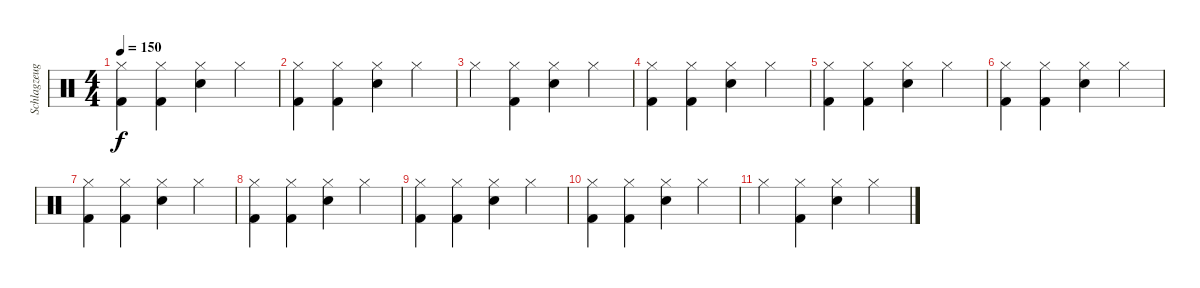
\track ("Schlagzeug" "Schlagzeug") {instrument percussion}
\staff {score}
\articulation defaults
\ts (4 4)
\tempo 150
\clef neutral
\ks c
("Hi-Hat (closed)" "Kick (hit) 2").4{dy f} ("Hi-Hat (closed)" "Kick (hit) 2").4 ("Hi-Hat (closed)" "Snare (hit) 2").4 "Hi-Hat (closed)".4 |
("Hi-Hat (closed)" "Kick (hit) 2").4 ("Hi-Hat (closed)" "Kick (hit) 2").4 ("Hi-Hat (closed)" "Snare (hit) 2").4 "Hi-Hat (closed)".4 |
"Hi-Hat (closed)".4 ("Hi-Hat (closed)" "Kick (hit) 2").4 ("Hi-Hat (closed)" "Snare (hit) 2").4 "Hi-Hat (closed)".4 |
("Hi-Hat (closed)" "Kick (hit) 2").4 ("Hi-Hat (closed)" "Kick (hit) 2").4 ("Hi-Hat (closed)" "Snare (hit) 2").4 "Hi-Hat (closed)".4 |
("Hi-Hat (closed)" "Kick (hit) 2").4 ("Hi-Hat (closed)" "Kick (hit) 2").4 ("Hi-Hat (closed)" "Snare (hit) 2").4 "Hi-Hat (closed)".4 |
("Hi-Hat (closed)" "Kick (hit) 2").4 ("Hi-Hat (closed)" "Kick (hit) 2").4 ("Hi-Hat (closed)" "Snare (hit) 2").4 "Hi-Hat (closed)".4 |
("Hi-Hat (closed)" "Kick (hit) 2").4 ("Hi-Hat (closed)" "Kick (hit) 2").4 ("Hi-Hat (closed)" "Snare (hit) 2").4 "Hi-Hat (closed)".4 |
("Hi-Hat (closed)" "Kick (hit) 2").4 ("Hi-Hat (closed)" "Kick (hit) 2").4 ("Hi-Hat (closed)" "Snare (hit) 2").4 "Hi-Hat (closed)".4 |
("Hi-Hat (closed)" "Kick (hit) 2").4 ("Hi-Hat (closed)" "Kick (hit) 2").4 ("Hi-Hat (closed)" "Snare (hit) 2").4 "Hi-Hat (closed)".4 |
("Hi-Hat (closed)" "Kick (hit) 2").4 ("Hi-Hat (closed)" "Kick (hit) 2").4 ("Hi-Hat (closed)" "Snare (hit) 2").4 "Hi-Hat (closed)".4 |
"Hi-Hat (closed)".4 ("Hi-Hat (closed)" "Kick (hit) 2").4 ("Hi-Hat (closed)" "Snare (hit) 2").4 "Hi-Hat (closed)".4
